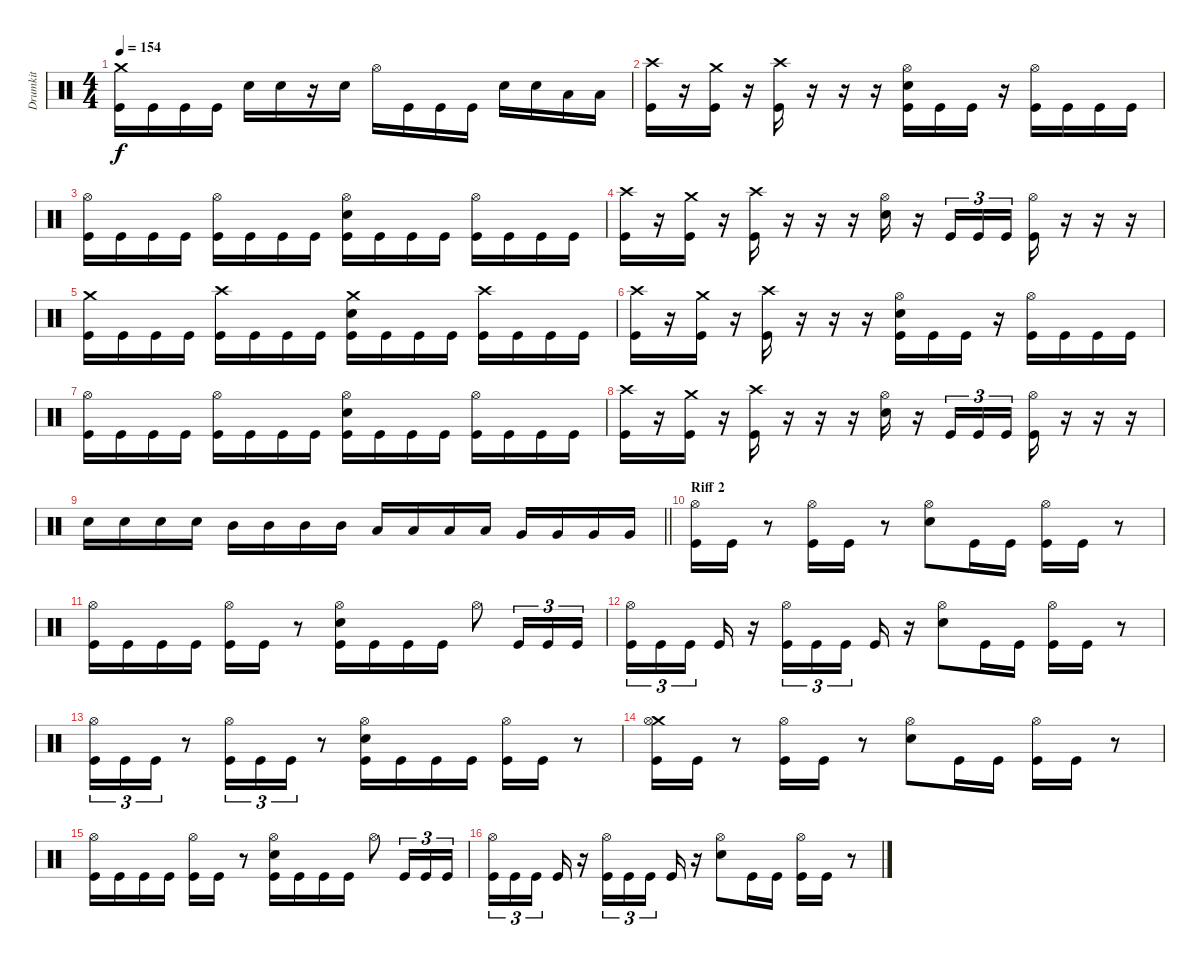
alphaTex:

\track ("Drumkit" "Drumkit") {mute instrument percussion}
\staff {score}
\articulation defaults
\ts (4 4)
\tempo 154
\clef neutral
\ks c
("Crash medium (hit)" "Kick (hit)").16{dy f} "Kick (hit)".16 "Kick (hit)".16 "Kick (hit)".16 "Snare (hit) 2".16 "Snare (hit) 2".16 r.16 "Snare (hit) 2".16 "Hi-Hat (open)".16 "Kick (hit)".16 "Kick (hit)".16 "Kick (hit)".16 "Snare (hit) 2".16 "Snare (hit) 2".16 "Low Tom (hit)".16 "Low Tom (hit)".16 |
("Crash high (hit)" "Kick (hit)").16 r.16 ("Crash medium (hit)" "Kick (hit)").16 r.16 ("Crash high (hit)" "Kick (hit)").16 r.16 r.16 r.16 ("Hi-Hat (open)" "Snare (hit) 2" "Kick (hit)").16 "Kick (hit)".16 "Kick (hit)".16 r.16 ("Hi-Hat (open)" "Kick (hit)").16 "Kick (hit)".16 "Kick (hit)".16 "Kick (hit)".16 |
("Hi-Hat (open)" "Kick (hit)").16 "Kick (hit)".16 "Kick (hit)".16 "Kick (hit)".16 ("Hi-Hat (open)" "Kick (hit)").16 "Kick (hit)".16 "Kick (hit)".16 "Kick (hit)".16 ("Hi-Hat (open)" "Snare (hit) 2" "Kick (hit)").16 "Kick (hit)".16 "Kick (hit)".16 "Kick (hit)".16 ("Hi-Hat (open)" "Kick (hit)").16 "Kick (hit)".16 "Kick (hit)".16 "Kick (hit)".16 |
("Crash high (hit)" "Kick (hit)").16 r.16 ("Crash medium (hit)" "Kick (hit)").16 r.16 ("Crash high (hit)" "Kick (hit)").16 r.16 r.16 r.16 ("Hi-Hat (open)" "Snare (hit) 2").16 r.16 "Kick (hit)".16{tu (3 2)} "Kick (hit)".16{tu (3 2)} "Kick (hit)".16{tu (3 2)} ("Hi-Hat (open)" "Kick (hit)").16 r.16 r.16 r.16 |
("Crash medium (hit)" "Kick (hit)").16 "Kick (hit)".16 "Kick (hit)".16 "Kick (hit)".16 ("Crash high (hit)" "Kick (hit)").16 "Kick (hit)".16 "Kick (hit)".16 "Kick (hit)".16 ("Crash medium (hit)" "Snare (hit) 2" "Kick (hit)").16 "Kick (hit)".16 "Kick (hit)".16 "Kick (hit)".16 ("Crash high (hit)" "Kick (hit)").16 "Kick (hit)".16 "Kick (hit)".16 "Kick (hit)".16 |
("Crash high (hit)" "Kick (hit)").16 r.16 ("Crash medium (hit)" "Kick (hit)").16 r.16 ("Crash high (hit)" "Kick (hit)").16 r.16 r.16 r.16 ("Hi-Hat (open)" "Snare (hit) 2" "Kick (hit)").16 "Kick (hit)".16 "Kick (hit)".16 r.16 ("Hi-Hat (open)" "Kick (hit)").16 "Kick (hit)".16 "Kick (hit)".16 "Kick (hit)".16 |
("Hi-Hat (open)" "Kick (hit)").16 "Kick (hit)".16 "Kick (hit)".16 "Kick (hit)".16 ("Hi-Hat (open)" "Kick (hit)").16 "Kick (hit)".16 "Kick (hit)".16 "Kick (hit)".16 ("Hi-Hat (open)" "Snare (hit) 2" "Kick (hit)").16 "Kick (hit)".16 "Kick (hit)".16 "Kick (hit)".16 ("Hi-Hat (open)" "Kick (hit)").16 "Kick (hit)".16 "Kick (hit)".16 "Kick (hit)".16 |
("Crash high (hit)" "Kick (hit)").16 r.16 ("Crash medium (hit)" "Kick (hit)").16 r.16 ("Crash high (hit)" "Kick (hit)").16 r.16 r.16 r.16 ("Hi-Hat (open)" "Snare (hit) 2").16 r.16 "Kick (hit)".16{tu (3 2)} "Kick (hit)".16{tu (3 2)} "Kick (hit)".16{tu (3 2)} ("Hi-Hat (open)" "Kick (hit)").16 r.16 r.16 r.16 |
\barLineRight lightlight "Snare (hit) 2".16 "Snare (hit) 2".16 "Snare (hit) 2".16 "Snare (hit) 2".16 "Mid Tom (hit)".16 "Mid Tom (hit)".16 "Mid Tom (hit)".16 "Mid Tom (hit)".16 "Low Tom (hit)".16 "Low Tom (hit)".16 "Low Tom (hit)".16 "Low Tom (hit)".16 "Very Low Tom (hit)".16 "Very Low Tom (hit)".16 "Very Low Tom (hit)".16 "Very Low Tom (hit)".16
|
\section ("" "Riff 2")
("Hi-Hat (open)" "Kick (hit)").16 "Kick (hit)".16 r.8 ("Hi-Hat (open)" "Kick (hit)").16 "Kick (hit)".16 r.8 ("Hi-Hat (open)" "Snare (hit) 2").8 "Kick (hit)".16 "Kick (hit)".16 ("Hi-Hat (open)" "Kick (hit)").16 "Kick (hit)".16 r.8 |
("Hi-Hat (open)" "Kick (hit)").16 "Kick (hit)".16 "Kick (hit)".16 "Kick (hit)".16 ("Hi-Hat (open)" "Kick (hit)").16 "Kick (hit)".16 r.8 ("Hi-Hat (open)" "Snare (hit) 2" "Kick (hit)").16 "Kick (hit)".16 "Kick (hit)".16 "Kick (hit)".16 "Hi-Hat (open)".8 "Kick (hit)".16{tu (3 2)} "Kick (hit)".16{tu (3 2)} "Kick (hit)".16{tu (3 2)} |
("Hi-Hat (open)" "Kick (hit)").16{tu (3 2)} "Kick (hit)".16{tu (3 2)} "Kick (hit)".16{tu (3 2)} "Kick (hit)".16 r.16 ("Hi-Hat (open)" "Kick (hit)").16{tu (3 2)} "Kick (hit)".16{tu (3 2)} "Kick (hit)".16{tu (3 2)} "Kick (hit)".16 r.16 ("Hi-Hat (open)" "Snare (hit) 2").8 "Kick (hit)".16 "Kick (hit)".16 ("Hi-Hat (open)" "Kick (hit)").16 "Kick (hit)".16 r.8 |
("Hi-Hat (open)" "Kick (hit)").16{tu (3 2)} "Kick (hit)".16{tu (3 2)} "Kick (hit)".16{tu (3 2)} r.8 ("Hi-Hat (open)" "Kick (hit)").16{tu (3 2)} "Kick (hit)".16{tu (3 2)} "Kick (hit)".16{tu (3 2)} r.8 ("Hi-Hat (open)" "Snare (hit) 2" "Kick (hit)").16 "Kick (hit)".16 "Kick (hit)".16 "Kick (hit)".16 ("Hi-Hat (open)" "Kick (hit)").16 "Kick (hit)".16 r.8 |
("Crash medium (hit)" "Hi-Hat (open)" "Kick (hit)").16 "Kick (hit)".16 r.8 ("Hi-Hat (open)" "Kick (hit)").16 "Kick (hit)".16 r.8 ("Hi-Hat (open)" "Snare (hit) 2").8 "Kick (hit)".16 "Kick (hit)".16 ("Hi-Hat (open)" "Kick (hit)").16 "Kick (hit)".16 r.8 |
("Hi-Hat (open)" "Kick (hit)").16 "Kick (hit)".16 "Kick (hit)".16 "Kick (hit)".16 ("Hi-Hat (open)" "Kick (hit)").16 "Kick (hit)".16 r.8 ("Hi-Hat (open)" "Snare (hit) 2" "Kick (hit)").16 "Kick (hit)".16 "Kick (hit)".16 "Kick (hit)".16 "Hi-Hat (open)".8 "Kick (hit)".16{tu (3 2)} "Kick (hit)".16{tu (3 2)} "Kick (hit)".16{tu (3 2)} |
("Hi-Hat (open)" "Kick (hit)").16{tu (3 2)} "Kick (hit)".16{tu (3 2)} "Kick (hit)".16{tu (3 2)} "Kick (hit)".16 r.16 ("Hi-Hat (open)" "Kick (hit)").16{tu (3 2)} "Kick (hit)".16{tu (3 2)} "Kick (hit)".16{tu (3 2)} "Kick (hit)".16 r.16 ("Hi-Hat (open)" "Snare (hit) 2").8 "Kick (hit)".16 "Kick (hit)".16 ("Hi-Hat (open)" "Kick (hit)").16 "Kick (hit)".16 r.8
